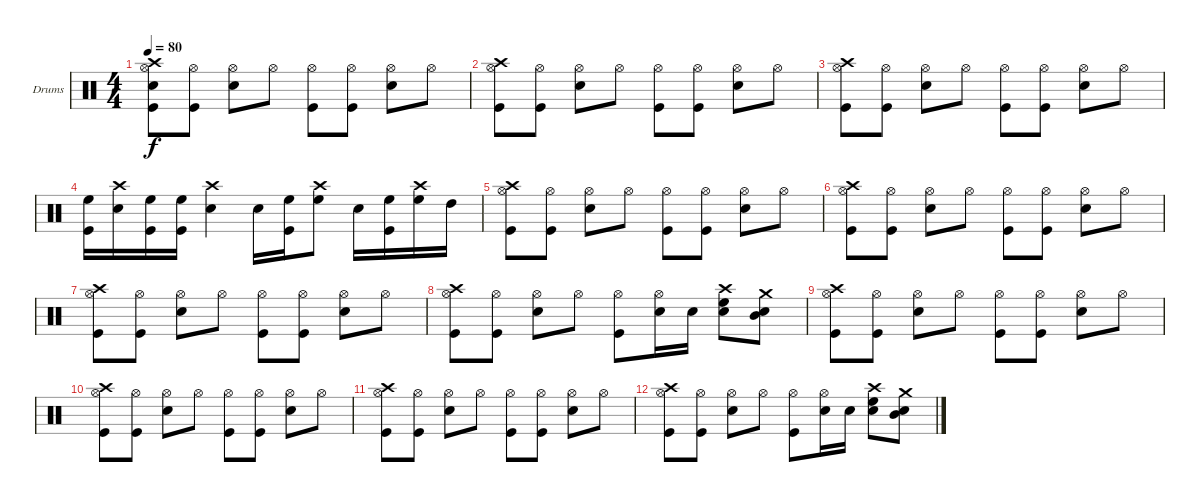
\bracketExtendMode groupsimilarinstruments
\firstSystemTrackNameOrientation horizontal
\otherSystemsTrackNameOrientation horizontal
\track ("Drumkit" "Drums") {instrument percussion}
\staff {score}
\articulation defaults
\ts (4 4)
\tempo 80
\clef neutral
\ks c
("Hi-Hat (open)" "Crash high (hit)" "Kick (hit)" "Snare (hit) 2").8{dy f} ("Hi-Hat (open)" "Kick (hit)").8 ("Hi-Hat (open)" "Snare (hit) 2").8 "Hi-Hat (open)".8 ("Hi-Hat (open)" "Kick (hit)").8 ("Hi-Hat (open)" "Kick (hit)").8 ("Hi-Hat (open)" "Snare (hit) 2").8 "Hi-Hat (open)".8 |
("Hi-Hat (open)" "Crash high (hit)" "Kick (hit)").8 ("Hi-Hat (open)" "Kick (hit)").8 ("Hi-Hat (open)" "Snare (hit) 2").8 "Hi-Hat (open)".8 ("Hi-Hat (open)" "Kick (hit)").8 ("Hi-Hat (open)" "Kick (hit)").8 ("Hi-Hat (open)" "Snare (hit) 2").8 "Hi-Hat (open)".8 |
("Hi-Hat (open)" "Crash high (hit)" "Kick (hit)").8 ("Hi-Hat (open)" "Kick (hit)").8 ("Hi-Hat (open)" "Snare (hit) 2").8 "Hi-Hat (open)".8 ("Hi-Hat (open)" "Kick (hit)").8 ("Hi-Hat (open)" "Kick (hit)").8 ("Hi-Hat (open)" "Snare (hit) 2").8 "Hi-Hat (open)".8 |
("Kick (hit)" "High Floor Tom (hit)").16 ("Crash high (hit)" "Snare (hit) 2").16 ("Kick (hit)" "High Floor Tom (hit)").16 ("Kick (hit)" "High Floor Tom (hit)").16 ("Crash high (hit)" "Snare (hit) 2").4 "Snare (hit) 2".16 ("Kick (hit)" "High Floor Tom (hit)").16 ("Crash high (hit)" "High Floor Tom (hit)").8 "Snare (hit) 2".16 ("Kick (hit)" "High Floor Tom (hit)").16 ("Crash high (hit)" "High Floor Tom (hit)").16 "High Tom (hit)".16 |
("Hi-Hat (open)" "Crash high (hit)" "Kick (hit)").8 ("Hi-Hat (open)" "Kick (hit)").8 ("Hi-Hat (open)" "Snare (hit) 2").8 "Hi-Hat (open)".8 ("Hi-Hat (open)" "Kick (hit)").8 ("Hi-Hat (open)" "Kick (hit)").8 ("Hi-Hat (open)" "Snare (hit) 2").8 "Hi-Hat (open)".8 |
("Hi-Hat (open)" "Crash high (hit)" "Kick (hit)").8 ("Hi-Hat (open)" "Kick (hit)").8 ("Hi-Hat (open)" "Snare (hit) 2").8 "Hi-Hat (open)".8 ("Hi-Hat (open)" "Kick (hit)").8 ("Hi-Hat (open)" "Kick (hit)").8 ("Hi-Hat (open)" "Snare (hit) 2").8 "Hi-Hat (open)".8 |
("Hi-Hat (open)" "Crash high (hit)" "Kick (hit)").8 ("Hi-Hat (open)" "Kick (hit)").8 ("Hi-Hat (open)" "Snare (hit) 2").8 "Hi-Hat (open)".8 ("Hi-Hat (open)" "Kick (hit)").8 ("Hi-Hat (open)" "Kick (hit)").8 ("Hi-Hat (open)" "Snare (hit) 2").8 "Hi-Hat (open)".8 |
("Hi-Hat (open)" "Crash high (hit)" "Kick (hit)").8 ("Hi-Hat (open)" "Kick (hit)").8 ("Hi-Hat (open)" "Snare (hit) 2").8 "Hi-Hat (open)".8 ("Hi-Hat (open)" "Kick (hit)").8 ("Hi-Hat (open)" "Snare (hit) 2").16 "Snare (hit) 2".16 ("Crash high (hit)" "High Floor Tom (hit)" "Snare (hit) 2").8 ("Crash medium (hit)" "Mid Tom (hit)" "Snare (hit) 2").8 |
("Hi-Hat (open)" "Crash high (hit)" "Kick (hit)").8 ("Hi-Hat (open)" "Kick (hit)").8 ("Hi-Hat (open)" "Snare (hit) 2").8 "Hi-Hat (open)".8 ("Hi-Hat (open)" "Kick (hit)").8 ("Hi-Hat (open)" "Kick (hit)").8 ("Hi-Hat (open)" "Snare (hit) 2").8 "Hi-Hat (open)".8 |
("Hi-Hat (open)" "Crash high (hit)" "Kick (hit)").8 ("Hi-Hat (open)" "Kick (hit)").8 ("Hi-Hat (open)" "Snare (hit) 2").8 "Hi-Hat (open)".8 ("Hi-Hat (open)" "Kick (hit)").8 ("Hi-Hat (open)" "Kick (hit)").8 ("Hi-Hat (open)" "Snare (hit) 2").8 "Hi-Hat (open)".8 |
("Hi-Hat (open)" "Crash high (hit)" "Kick (hit)").8 ("Hi-Hat (open)" "Kick (hit)").8 ("Hi-Hat (open)" "Snare (hit) 2").8 "Hi-Hat (open)".8 ("Hi-Hat (open)" "Kick (hit)").8 ("Hi-Hat (open)" "Kick (hit)").8 ("Hi-Hat (open)" "Snare (hit) 2").8 "Hi-Hat (open)".8 |
("Hi-Hat (open)" "Crash high (hit)" "Kick (hit)").8 ("Hi-Hat (open)" "Kick (hit)").8 ("Hi-Hat (open)" "Snare (hit) 2").8 "Hi-Hat (open)".8 ("Hi-Hat (open)" "Kick (hit)").8 ("Hi-Hat (open)" "Snare (hit) 2").16 "Snare (hit) 2".16 ("Crash high (hit)" "High Floor Tom (hit)" "Snare (hit) 2").8 ("Crash medium (hit)" "Mid Tom (hit)" "Snare (hit) 2").8
